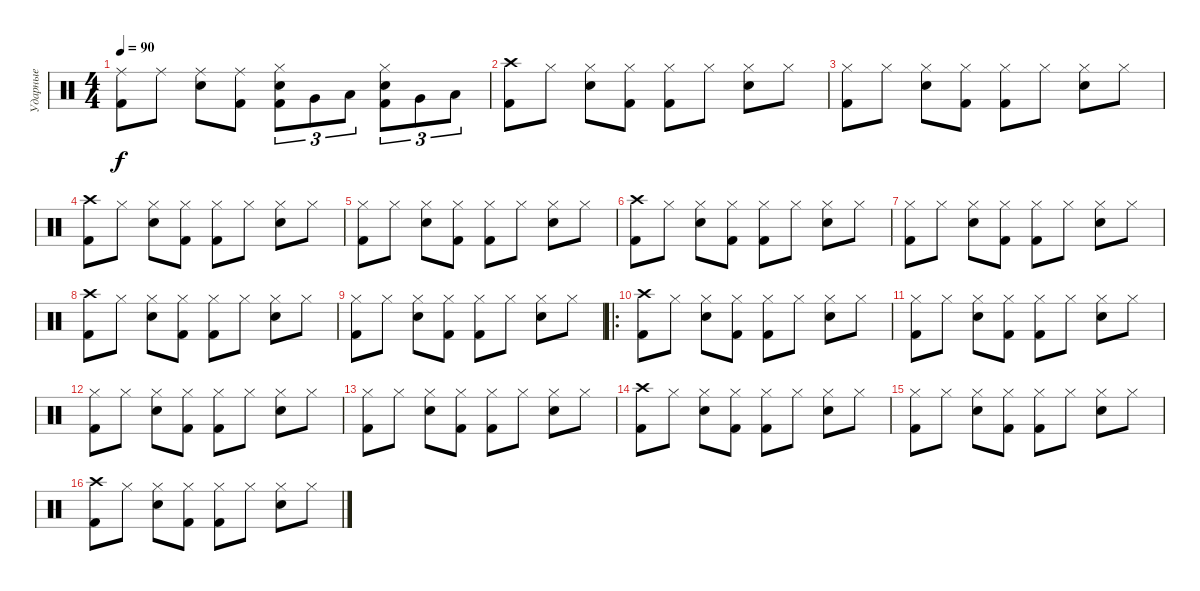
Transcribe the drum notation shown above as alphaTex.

\track ("Ударные" "Ударные") {instrument percussion}
\staff {score}
\articulation defaults
\ts (4 4)
\tempo 90
\clef neutral
\ks c
("Ride (middle)" "Kick (hit) 2").8{dy f} "Ride (middle)".8 ("Ride (middle)" "Snare (hit) 2").8 ("Ride (middle)" "Kick (hit) 2").8 ("Hi-Hat (closed)" "Snare (hit) 2" "Kick (hit) 2").8{tu (3 2)} "Very Low Tom (hit)".8{tu (3 2)} "Low Floor Tom (hit)".8{tu (3 2)} ("Hi-Hat (closed)" "Snare (hit) 2" "Kick (hit) 2").8{tu (3 2)} "Very Low Tom (hit)".8{tu (3 2)} "Low Floor Tom (hit)".8{tu (3 2)} |
("Crash high (hit)" "Kick (hit) 2").8 "Hi-Hat (closed)".8 ("Hi-Hat (closed)" "Snare (hit) 2").8 ("Hi-Hat (closed)" "Kick (hit) 2").8 ("Hi-Hat (closed)" "Kick (hit) 2").8 "Hi-Hat (closed)".8 ("Hi-Hat (closed)" "Snare (hit) 2").8 "Hi-Hat (closed)".8 |
("Hi-Hat (closed)" "Kick (hit) 2").8 "Hi-Hat (closed)".8 ("Hi-Hat (closed)" "Snare (hit) 2").8 ("Hi-Hat (closed)" "Kick (hit) 2").8 ("Hi-Hat (closed)" "Kick (hit) 2").8 "Hi-Hat (closed)".8 ("Hi-Hat (closed)" "Snare (hit) 2").8 "Hi-Hat (closed)".8 |
("Crash high (hit)" "Kick (hit) 2").8 "Hi-Hat (closed)".8 ("Hi-Hat (closed)" "Snare (hit) 2").8 ("Hi-Hat (closed)" "Kick (hit) 2").8 ("Hi-Hat (closed)" "Kick (hit) 2").8 "Hi-Hat (closed)".8 ("Hi-Hat (closed)" "Snare (hit) 2").8 "Hi-Hat (closed)".8 |
("Hi-Hat (closed)" "Kick (hit) 2").8 "Hi-Hat (closed)".8 ("Hi-Hat (closed)" "Snare (hit) 2").8 ("Hi-Hat (closed)" "Kick (hit) 2").8 ("Hi-Hat (closed)" "Kick (hit) 2").8 "Hi-Hat (closed)".8 ("Hi-Hat (closed)" "Snare (hit) 2").8 "Hi-Hat (closed)".8 |
("Crash high (hit)" "Kick (hit) 2").8 "Hi-Hat (closed)".8 ("Hi-Hat (closed)" "Snare (hit) 2").8 ("Hi-Hat (closed)" "Kick (hit) 2").8 ("Hi-Hat (closed)" "Kick (hit) 2").8 "Hi-Hat (closed)".8 ("Hi-Hat (closed)" "Snare (hit) 2").8 "Hi-Hat (closed)".8 |
("Hi-Hat (closed)" "Kick (hit) 2").8 "Hi-Hat (closed)".8 ("Hi-Hat (closed)" "Snare (hit) 2").8 ("Hi-Hat (closed)" "Kick (hit) 2").8 ("Hi-Hat (closed)" "Kick (hit) 2").8 "Hi-Hat (closed)".8 ("Hi-Hat (closed)" "Snare (hit) 2").8 "Hi-Hat (closed)".8 |
("Crash high (hit)" "Kick (hit) 2").8 "Hi-Hat (closed)".8 ("Hi-Hat (closed)" "Snare (hit) 2").8 ("Hi-Hat (closed)" "Kick (hit) 2").8 ("Hi-Hat (closed)" "Kick (hit) 2").8 "Hi-Hat (closed)".8 ("Hi-Hat (closed)" "Snare (hit) 2").8 "Hi-Hat (closed)".8 |
("Hi-Hat (closed)" "Kick (hit) 2").8 "Hi-Hat (closed)".8 ("Hi-Hat (closed)" "Snare (hit) 2").8 ("Hi-Hat (closed)" "Kick (hit) 2").8 ("Hi-Hat (closed)" "Kick (hit) 2").8 "Hi-Hat (closed)".8 ("Hi-Hat (closed)" "Snare (hit) 2").8 "Hi-Hat (closed)".8 |
\ro
("Crash high (hit)" "Kick (hit) 2").8 "Hi-Hat (closed)".8 ("Hi-Hat (closed)" "Snare (hit) 2").8 ("Hi-Hat (closed)" "Kick (hit) 2").8 ("Hi-Hat (closed)" "Kick (hit) 2").8 "Hi-Hat (closed)".8 ("Hi-Hat (closed)" "Snare (hit) 2").8 "Hi-Hat (closed)".8 |
("Hi-Hat (closed)" "Kick (hit) 2").8 "Hi-Hat (closed)".8 ("Hi-Hat (closed)" "Snare (hit) 2").8 ("Hi-Hat (closed)" "Kick (hit) 2").8 ("Hi-Hat (closed)" "Kick (hit) 2").8 "Hi-Hat (closed)".8 ("Hi-Hat (closed)" "Snare (hit) 2").8 "Hi-Hat (closed)".8 |
("Hi-Hat (closed)" "Kick (hit) 2").8 "Hi-Hat (closed)".8 ("Hi-Hat (closed)" "Snare (hit) 2").8 ("Hi-Hat (closed)" "Kick (hit) 2").8 ("Hi-Hat (closed)" "Kick (hit) 2").8 "Hi-Hat (closed)".8 ("Hi-Hat (closed)" "Snare (hit) 2").8 "Hi-Hat (closed)".8 |
("Hi-Hat (closed)" "Kick (hit) 2").8 "Hi-Hat (closed)".8 ("Hi-Hat (closed)" "Snare (hit) 2").8 ("Hi-Hat (closed)" "Kick (hit) 2").8 ("Hi-Hat (closed)" "Kick (hit) 2").8 "Hi-Hat (closed)".8 ("Hi-Hat (closed)" "Snare (hit) 2").8 "Hi-Hat (closed)".8 |
("Crash high (hit)" "Kick (hit) 2").8 "Hi-Hat (closed)".8 ("Hi-Hat (closed)" "Snare (hit) 2").8 ("Hi-Hat (closed)" "Kick (hit) 2").8 ("Hi-Hat (closed)" "Kick (hit) 2").8 "Hi-Hat (closed)".8 ("Hi-Hat (closed)" "Snare (hit) 2").8 "Hi-Hat (closed)".8 |
("Hi-Hat (closed)" "Kick (hit) 2").8 "Hi-Hat (closed)".8 ("Hi-Hat (closed)" "Snare (hit) 2").8 ("Hi-Hat (closed)" "Kick (hit) 2").8 ("Hi-Hat (closed)" "Kick (hit) 2").8 "Hi-Hat (closed)".8 ("Hi-Hat (closed)" "Snare (hit) 2").8 "Hi-Hat (closed)".8 |
("Crash high (hit)" "Kick (hit) 2").8 "Hi-Hat (closed)".8 ("Hi-Hat (closed)" "Snare (hit) 2").8 ("Hi-Hat (closed)" "Kick (hit) 2").8 ("Hi-Hat (closed)" "Kick (hit) 2").8 "Hi-Hat (closed)".8 ("Hi-Hat (closed)" "Snare (hit) 2").8 "Hi-Hat (closed)".8
